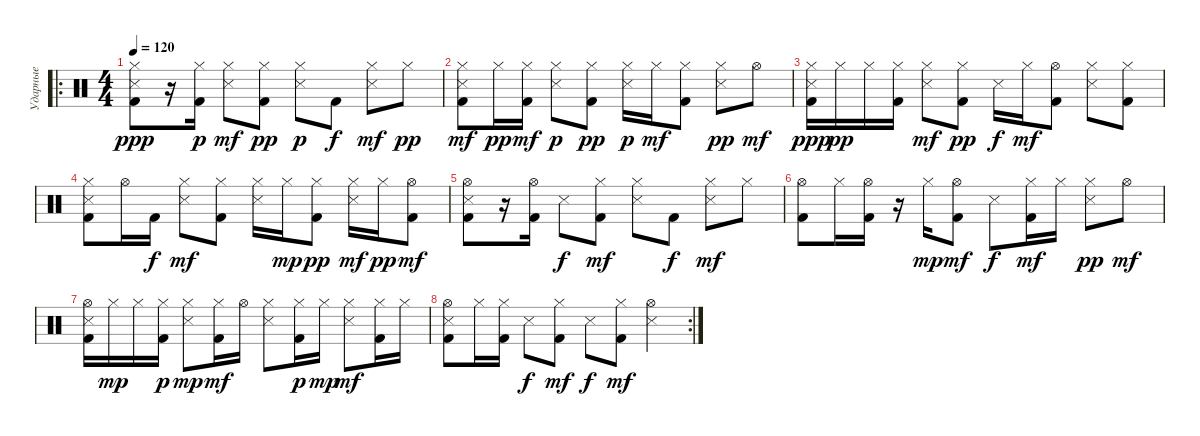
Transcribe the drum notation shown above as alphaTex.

\track ("Ударные" "Ударные") {instrument percussion}
\staff {score}
\articulation defaults
\ro
\ts (4 4)
\tempo 120
\clef neutral
\ks c
("Hi-Hat (closed)" "Snare (side stick) 3" "Kick (hit) 2").8{dy ppp} r.16 ("Hi-Hat (closed)" "Kick (hit) 2").16{dy p} ("Hi-Hat (closed)" "Snare (side stick) 3").8{dy mf} ("Hi-Hat (closed)" "Kick (hit) 2").8{dy pp} ("Hi-Hat (closed)" "Snare (side stick) 3").8{dy p} "Kick (hit) 2".8{dy f} ("Hi-Hat (closed)" "Snare (side stick) 3").8{dy mf} "Hi-Hat (closed)".8{dy pp} |
("Hi-Hat (closed)" "Snare (side stick) 3" "Kick (hit) 2").8{dy mf} "Hi-Hat (closed)".16{dy pp} ("Hi-Hat (closed)" "Kick (hit) 2").16{dy mf} ("Hi-Hat (closed)" "Snare (side stick) 3").8{dy p} ("Hi-Hat (closed)" "Kick (hit) 2").8{dy pp} ("Hi-Hat (closed)" "Snare (side stick) 3").16{dy p} "Hi-Hat (closed)".16{dy mf} ("Hi-Hat (closed)" "Kick (hit) 2").8 ("Hi-Hat (closed)" "Snare (side stick) 3").8{dy pp} "Hi-Hat (open)".8{dy mf} |
("Hi-Hat (closed)" "Snare (side stick) 3" "Kick (hit) 2").16{dy ppp} "Hi-Hat (closed)".16{dy pp} "Hi-Hat (closed)".16 ("Hi-Hat (closed)" "Kick (hit) 2").16 ("Hi-Hat (closed)" "Snare (side stick) 3").8{dy mf} ("Hi-Hat (closed)" "Kick (hit) 2").8{dy pp} "Snare (side stick) 3".16{dy f} "Hi-Hat (closed)".16{dy mf} ("Hi-Hat (open)" "Kick (hit) 2").8 ("Hi-Hat (closed)" "Snare (side stick) 3").8 ("Hi-Hat (closed)" "Kick (hit) 2").8 |
("Hi-Hat (closed)" "Snare (side stick) 3" "Kick (hit) 2").8 "Hi-Hat (open)".16 "Kick (hit) 2".16{dy f} ("Hi-Hat (closed)" "Snare (side stick) 3").8{dy mf} ("Hi-Hat (closed)" "Kick (hit) 2").8 ("Hi-Hat (closed)" "Snare (side stick) 3").16 "Hi-Hat (closed)".16{dy mp} ("Hi-Hat (closed)" "Kick (hit) 2").8{dy pp} ("Hi-Hat (closed)" "Snare (side stick) 3").16{dy mf} "Hi-Hat (closed)".16{dy pp} ("Hi-Hat (open)" "Kick (hit) 2").8{dy mf} |
("Hi-Hat (open)" "Snare (side stick) 3" "Kick (hit) 2").8 r.16 ("Hi-Hat (open)" "Kick (hit) 2").16 "Snare (side stick) 3".8{dy f} ("Hi-Hat (closed)" "Kick (hit) 2").8{dy mf} ("Hi-Hat (closed)" "Snare (side stick) 3").8 "Kick (hit) 2".8{dy f} ("Hi-Hat (closed)" "Snare (side stick) 3").8{dy mf} "Hi-Hat (closed)".8 |
("Hi-Hat (open)" "Kick (hit) 2").8 "Hi-Hat (closed)".16 ("Hi-Hat (open)" "Kick (hit) 2").16 r.16 "Hi-Hat (closed)".16{dy mp} ("Hi-Hat (open)" "Kick (hit) 2").8{dy mf} "Snare (side stick) 3".8{dy f} ("Hi-Hat (closed)" "Kick (hit) 2").16{dy mf} "Hi-Hat (closed)".16 ("Hi-Hat (closed)" "Snare (side stick) 3").8{dy pp} "Hi-Hat (open)".8{dy mf} |
("Hi-Hat (open)" "Snare (side stick) 3" "Kick (hit) 2").16 "Hi-Hat (closed)".16{dy mp} "Hi-Hat (closed)".16 ("Hi-Hat (closed)" "Kick (hit) 2").16{dy p} ("Hi-Hat (closed)" "Snare (side stick) 3").8{dy mp} ("Hi-Hat (closed)" "Kick (hit) 2").16{dy mf} "Hi-Hat (open)".16 ("Hi-Hat (closed)" "Snare (side stick) 3").8 ("Hi-Hat (closed)" "Kick (hit) 2").16{dy p} "Hi-Hat (closed)".16{dy mp} ("Hi-Hat (closed)" "Snare (side stick) 3").8{dy mf} ("Hi-Hat (closed)" "Kick (hit) 2").16 "Hi-Hat (closed)".16 |
\rc 2
("Hi-Hat (open)" "Snare (side stick) 3" "Kick (hit) 2").8 "Hi-Hat (closed)".16 ("Hi-Hat (closed)" "Kick (hit) 2").16 "Snare (side stick) 3".8{dy f} ("Hi-Hat (closed)" "Kick (hit) 2").8{dy mf} "Snare (side stick) 3".8{dy f} ("Hi-Hat (closed)" "Kick (hit) 2").8{dy mf} ("Hi-Hat (open)" "Snare (side stick) 3").4
